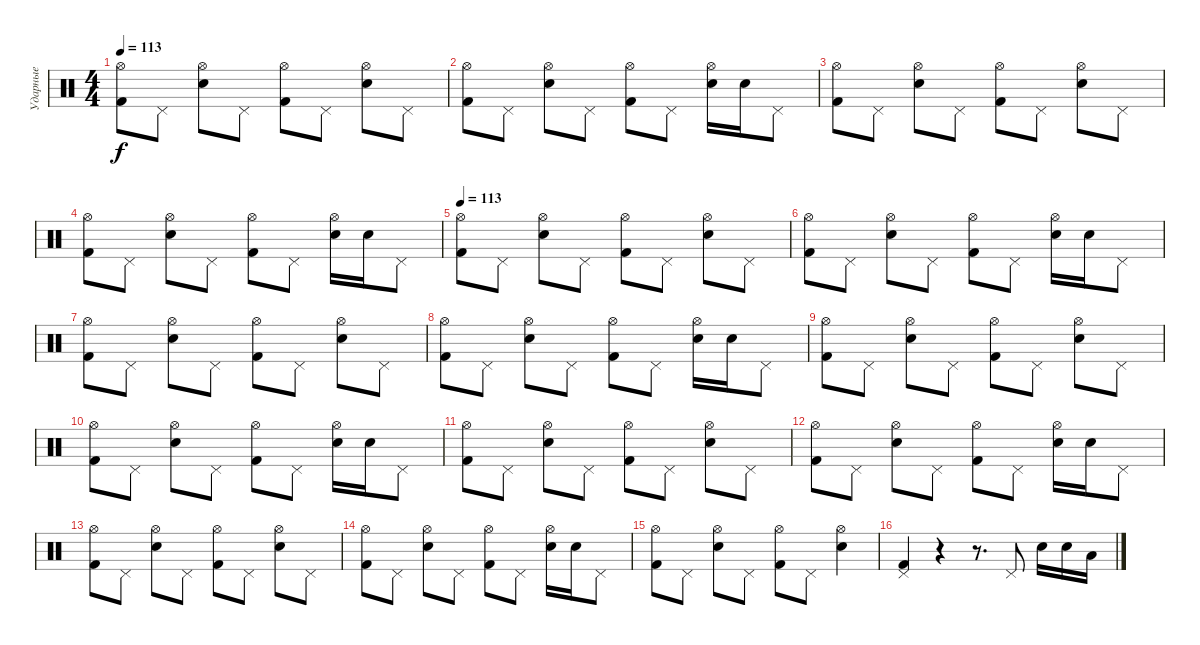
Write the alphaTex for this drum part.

\track ("Ударные" "Ударные") {instrument percussion}
\staff {score}
\articulation defaults
\ts (4 4)
\tempo 113
\clef neutral
\ks c
("Kick (hit) 2" "Hi-Hat (open)").8{dy f} "Pedal Hi-Hat (hit)".8 ("Electric Snare (hit)" "Hi-Hat (open)").8 "Pedal Hi-Hat (hit)".8 ("Kick (hit) 2" "Hi-Hat (open)").8 "Pedal Hi-Hat (hit)".8 ("Electric Snare (hit)" "Hi-Hat (open)").8 "Pedal Hi-Hat (hit)".8 |
("Kick (hit) 2" "Hi-Hat (open)").8 "Pedal Hi-Hat (hit)".8 ("Electric Snare (hit)" "Hi-Hat (open)").8 "Pedal Hi-Hat (hit)".8 ("Kick (hit) 2" "Hi-Hat (open)").8 "Pedal Hi-Hat (hit)".8 ("Electric Snare (hit)" "Hi-Hat (open)").16 "Electric Snare (hit)".16 "Pedal Hi-Hat (hit)".8 |
("Kick (hit) 2" "Hi-Hat (open)").8 "Pedal Hi-Hat (hit)".8 ("Electric Snare (hit)" "Hi-Hat (open)").8 "Pedal Hi-Hat (hit)".8 ("Kick (hit) 2" "Hi-Hat (open)").8 "Pedal Hi-Hat (hit)".8 ("Electric Snare (hit)" "Hi-Hat (open)").8 "Pedal Hi-Hat (hit)".8 |
("Kick (hit) 2" "Hi-Hat (open)").8 "Pedal Hi-Hat (hit)".8 ("Electric Snare (hit)" "Hi-Hat (open)").8 "Pedal Hi-Hat (hit)".8 ("Kick (hit) 2" "Hi-Hat (open)").8 "Pedal Hi-Hat (hit)".8 ("Electric Snare (hit)" "Hi-Hat (open)").16 "Electric Snare (hit)".16 "Pedal Hi-Hat (hit)".8 |
\tempo 113
("Kick (hit) 2" "Hi-Hat (open)").8 "Pedal Hi-Hat (hit)".8 ("Electric Snare (hit)" "Hi-Hat (open)").8 "Pedal Hi-Hat (hit)".8 ("Kick (hit) 2" "Hi-Hat (open)").8 "Pedal Hi-Hat (hit)".8 ("Electric Snare (hit)" "Hi-Hat (open)").8 "Pedal Hi-Hat (hit)".8 |
("Kick (hit) 2" "Hi-Hat (open)").8 "Pedal Hi-Hat (hit)".8 ("Electric Snare (hit)" "Hi-Hat (open)").8 "Pedal Hi-Hat (hit)".8 ("Kick (hit) 2" "Hi-Hat (open)").8 "Pedal Hi-Hat (hit)".8 ("Electric Snare (hit)" "Hi-Hat (open)").16 "Electric Snare (hit)".16 "Pedal Hi-Hat (hit)".8 |
("Kick (hit) 2" "Hi-Hat (open)").8 "Pedal Hi-Hat (hit)".8 ("Electric Snare (hit)" "Hi-Hat (open)").8 "Pedal Hi-Hat (hit)".8 ("Kick (hit) 2" "Hi-Hat (open)").8 "Pedal Hi-Hat (hit)".8 ("Electric Snare (hit)" "Hi-Hat (open)").8 "Pedal Hi-Hat (hit)".8 |
("Kick (hit) 2" "Hi-Hat (open)").8 "Pedal Hi-Hat (hit)".8 ("Electric Snare (hit)" "Hi-Hat (open)").8 "Pedal Hi-Hat (hit)".8 ("Kick (hit) 2" "Hi-Hat (open)").8 "Pedal Hi-Hat (hit)".8 ("Electric Snare (hit)" "Hi-Hat (open)").16 "Electric Snare (hit)".16 "Pedal Hi-Hat (hit)".8 |
("Kick (hit) 2" "Hi-Hat (open)").8 "Pedal Hi-Hat (hit)".8 ("Electric Snare (hit)" "Hi-Hat (open)").8 "Pedal Hi-Hat (hit)".8 ("Kick (hit) 2" "Hi-Hat (open)").8 "Pedal Hi-Hat (hit)".8 ("Electric Snare (hit)" "Hi-Hat (open)").8 "Pedal Hi-Hat (hit)".8 |
("Kick (hit) 2" "Hi-Hat (open)").8 "Pedal Hi-Hat (hit)".8 ("Electric Snare (hit)" "Hi-Hat (open)").8 "Pedal Hi-Hat (hit)".8 ("Kick (hit) 2" "Hi-Hat (open)").8 "Pedal Hi-Hat (hit)".8 ("Electric Snare (hit)" "Hi-Hat (open)").16 "Electric Snare (hit)".16 "Pedal Hi-Hat (hit)".8 |
("Kick (hit) 2" "Hi-Hat (open)").8 "Pedal Hi-Hat (hit)".8 ("Electric Snare (hit)" "Hi-Hat (open)").8 "Pedal Hi-Hat (hit)".8 ("Kick (hit) 2" "Hi-Hat (open)").8 "Pedal Hi-Hat (hit)".8 ("Electric Snare (hit)" "Hi-Hat (open)").8 "Pedal Hi-Hat (hit)".8 |
("Kick (hit) 2" "Hi-Hat (open)").8 "Pedal Hi-Hat (hit)".8 ("Electric Snare (hit)" "Hi-Hat (open)").8 "Pedal Hi-Hat (hit)".8 ("Kick (hit) 2" "Hi-Hat (open)").8 "Pedal Hi-Hat (hit)".8 ("Electric Snare (hit)" "Hi-Hat (open)").16 "Electric Snare (hit)".16 "Pedal Hi-Hat (hit)".8 |
("Kick (hit) 2" "Hi-Hat (open)").8 "Pedal Hi-Hat (hit)".8 ("Electric Snare (hit)" "Hi-Hat (open)").8 "Pedal Hi-Hat (hit)".8 ("Kick (hit) 2" "Hi-Hat (open)").8 "Pedal Hi-Hat (hit)".8 ("Electric Snare (hit)" "Hi-Hat (open)").8 "Pedal Hi-Hat (hit)".8 |
("Kick (hit) 2" "Hi-Hat (open)").8 "Pedal Hi-Hat (hit)".8 ("Electric Snare (hit)" "Hi-Hat (open)").8 "Pedal Hi-Hat (hit)".8 ("Kick (hit) 2" "Hi-Hat (open)").8 "Pedal Hi-Hat (hit)".8 ("Electric Snare (hit)" "Hi-Hat (open)").16 "Electric Snare (hit)".16 "Pedal Hi-Hat (hit)".8 |
("Kick (hit) 2" "Hi-Hat (open)").8 "Pedal Hi-Hat (hit)".8 ("Electric Snare (hit)" "Hi-Hat (open)").8 "Pedal Hi-Hat (hit)".8 ("Kick (hit) 2" "Hi-Hat (open)").8 "Pedal Hi-Hat (hit)".8 ("Electric Snare (hit)" "Hi-Hat (open)").4 |
("Kick (hit) 2" "Pedal Hi-Hat (hit)").4 r.4 r.8{d} "Pedal Hi-Hat (hit)".8 "Electric Snare (hit)".16 "Electric Snare (hit)".16 "Low Tom (hit)".16
